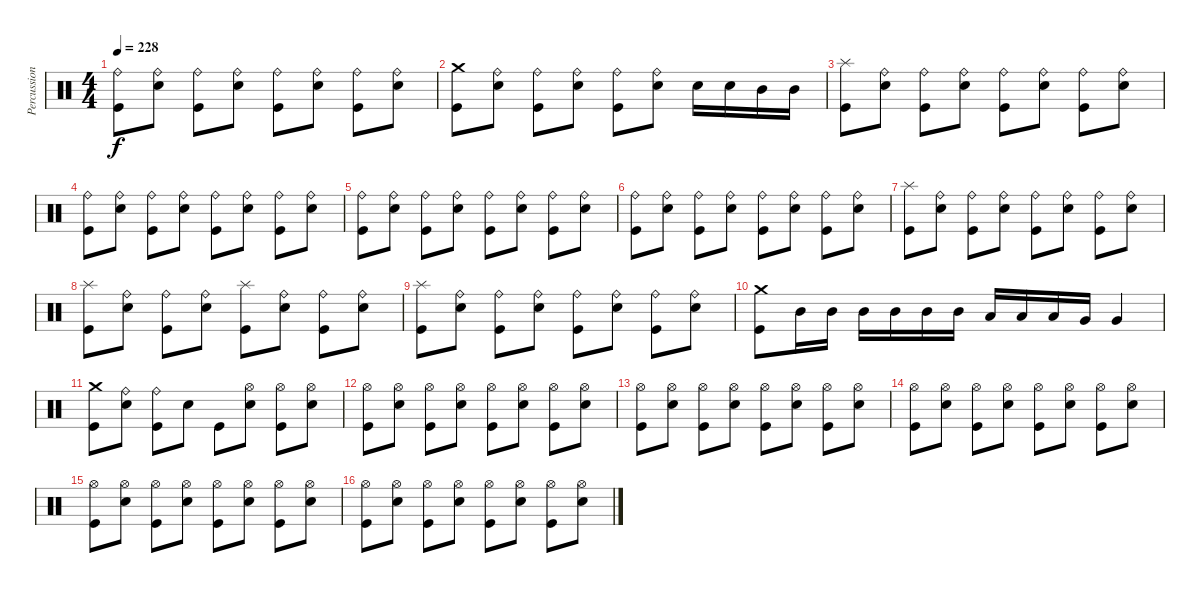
\track ("Percussions" "Percussion") {instrument percussion}
\staff {score}
\articulation defaults
\ts (4 4)
\tempo 228
\clef neutral
\ks c
("Kick (hit)" "Ride (bell)").8{dy f} ("Electric Snare (hit)" "Ride (bell)").8 ("Kick (hit)" "Ride (bell)").8 ("Electric Snare (hit)" "Ride (bell)").8 ("Kick (hit)" "Ride (bell)").8 ("Electric Snare (hit)" "Ride (bell)").8 ("Kick (hit)" "Ride (bell)").8 ("Electric Snare (hit)" "Ride (bell)").8 |
("Kick (hit)" "Crash medium (hit)").8 ("Electric Snare (hit)" "Ride (bell)").8 ("Kick (hit)" "Ride (bell)").8 ("Electric Snare (hit)" "Ride (bell)").8 ("Kick (hit)" "Ride (bell)").8 ("Electric Snare (hit)" "Ride (bell)").8 "Electric Snare (hit)".16 "Electric Snare (hit)".16 "Mid Tom (hit)".16 "Mid Tom (hit)".16 |
("Kick (hit)" "Splash (hit)").8 ("Electric Snare (hit)" "Ride (bell)").8 ("Kick (hit)" "Ride (bell)").8 ("Electric Snare (hit)" "Ride (bell)").8 ("Kick (hit)" "Ride (bell)").8 ("Electric Snare (hit)" "Ride (bell)").8 ("Kick (hit)" "Ride (bell)").8 ("Electric Snare (hit)" "Ride (bell)").8 |
("Kick (hit)" "Ride (bell)").8 ("Electric Snare (hit)" "Ride (bell)").8 ("Kick (hit)" "Ride (bell)").8 ("Electric Snare (hit)" "Ride (bell)").8 ("Kick (hit)" "Ride (bell)").8 ("Electric Snare (hit)" "Ride (bell)").8 ("Kick (hit)" "Ride (bell)").8 ("Electric Snare (hit)" "Ride (bell)").8 |
("Kick (hit)" "Ride (bell)").8 ("Electric Snare (hit)" "Ride (bell)").8 ("Kick (hit)" "Ride (bell)").8 ("Electric Snare (hit)" "Ride (bell)").8 ("Kick (hit)" "Ride (bell)").8 ("Electric Snare (hit)" "Ride (bell)").8 ("Kick (hit)" "Ride (bell)").8 ("Electric Snare (hit)" "Ride (bell)").8 |
("Kick (hit)" "Ride (bell)").8 ("Electric Snare (hit)" "Ride (bell)").8 ("Kick (hit)" "Ride (bell)").8 ("Electric Snare (hit)" "Ride (bell)").8 ("Kick (hit)" "Ride (bell)").8 ("Electric Snare (hit)" "Ride (bell)").8 ("Kick (hit)" "Ride (bell)").8 ("Electric Snare (hit)" "Ride (bell)").8 |
("Kick (hit)" "Splash (hit)").8 ("Electric Snare (hit)" "Ride (bell)").8 ("Kick (hit)" "Ride (bell)").8 ("Electric Snare (hit)" "Ride (bell)").8 ("Kick (hit)" "Ride (bell)").8 ("Electric Snare (hit)" "Ride (bell)").8 ("Kick (hit)" "Ride (bell)").8 ("Electric Snare (hit)" "Ride (bell)").8 |
("Kick (hit)" "Splash (hit)").8 ("Electric Snare (hit)" "Ride (bell)").8 ("Kick (hit)" "Ride (bell)").8 ("Electric Snare (hit)" "Ride (bell)").8 ("Kick (hit)" "Splash (hit)").8 ("Electric Snare (hit)" "Ride (bell)").8 ("Kick (hit)" "Ride (bell)").8 ("Electric Snare (hit)" "Ride (bell)").8 |
("Kick (hit)" "Splash (hit)").8 ("Electric Snare (hit)" "Ride (bell)").8 ("Kick (hit)" "Ride (bell)").8 ("Electric Snare (hit)" "Ride (bell)").8 ("Kick (hit)" "Ride (bell)").8 ("Electric Snare (hit)" "Ride (bell)").8 ("Kick (hit)" "Ride (bell)").8 ("Electric Snare (hit)" "Ride (bell)").8 |
("Kick (hit)" "Crash medium (hit)").8 "Mid Tom (hit)".16 "Mid Tom (hit)".16 "Mid Tom (hit)".16 "Mid Tom (hit)".16 "Mid Tom (hit)".16 "Mid Tom (hit)".16 "Low Tom (hit)".16 "Low Tom (hit)".16 "Low Tom (hit)".16 "Very Low Tom (hit)".16 "Very Low Tom (hit)".4 |
("Kick (hit)" "Crash medium (hit)").8 ("Electric Snare (hit)" "Ride (bell)").8 ("Kick (hit)" "Ride (bell)").8 "Electric Snare (hit)".8 "Kick (hit)".8 ("Electric Snare (hit)" "Hi-Hat (open)").8 ("Kick (hit)" "Hi-Hat (open)").8 ("Electric Snare (hit)" "Hi-Hat (open)").8 |
("Kick (hit)" "Hi-Hat (open)").8 ("Electric Snare (hit)" "Hi-Hat (open)").8 ("Kick (hit)" "Hi-Hat (open)").8 ("Electric Snare (hit)" "Hi-Hat (open)").8 ("Kick (hit)" "Hi-Hat (open)").8 ("Electric Snare (hit)" "Hi-Hat (open)").8 ("Kick (hit)" "Hi-Hat (open)").8 ("Electric Snare (hit)" "Hi-Hat (open)").8 |
("Kick (hit)" "Hi-Hat (open)").8 ("Electric Snare (hit)" "Hi-Hat (open)").8 ("Kick (hit)" "Hi-Hat (open)").8 ("Electric Snare (hit)" "Hi-Hat (open)").8 ("Kick (hit)" "Hi-Hat (open)").8 ("Electric Snare (hit)" "Hi-Hat (open)").8 ("Kick (hit)" "Hi-Hat (open)").8 ("Electric Snare (hit)" "Hi-Hat (open)").8 |
("Kick (hit)" "Hi-Hat (open)").8 ("Electric Snare (hit)" "Hi-Hat (open)").8 ("Kick (hit)" "Hi-Hat (open)").8 ("Electric Snare (hit)" "Hi-Hat (open)").8 ("Kick (hit)" "Hi-Hat (open)").8 ("Electric Snare (hit)" "Hi-Hat (open)").8 ("Kick (hit)" "Hi-Hat (open)").8 ("Electric Snare (hit)" "Hi-Hat (open)").8 |
("Kick (hit)" "Hi-Hat (open)").8 ("Electric Snare (hit)" "Hi-Hat (open)").8 ("Kick (hit)" "Hi-Hat (open)").8 ("Electric Snare (hit)" "Hi-Hat (open)").8 ("Kick (hit)" "Hi-Hat (open)").8 ("Electric Snare (hit)" "Hi-Hat (open)").8 ("Kick (hit)" "Hi-Hat (open)").8 ("Electric Snare (hit)" "Hi-Hat (open)").8 |
("Kick (hit)" "Hi-Hat (open)").8 ("Electric Snare (hit)" "Hi-Hat (open)").8 ("Kick (hit)" "Hi-Hat (open)").8 ("Electric Snare (hit)" "Hi-Hat (open)").8 ("Kick (hit)" "Hi-Hat (open)").8 ("Electric Snare (hit)" "Hi-Hat (open)").8 ("Kick (hit)" "Hi-Hat (open)").8 ("Electric Snare (hit)" "Hi-Hat (open)").8
